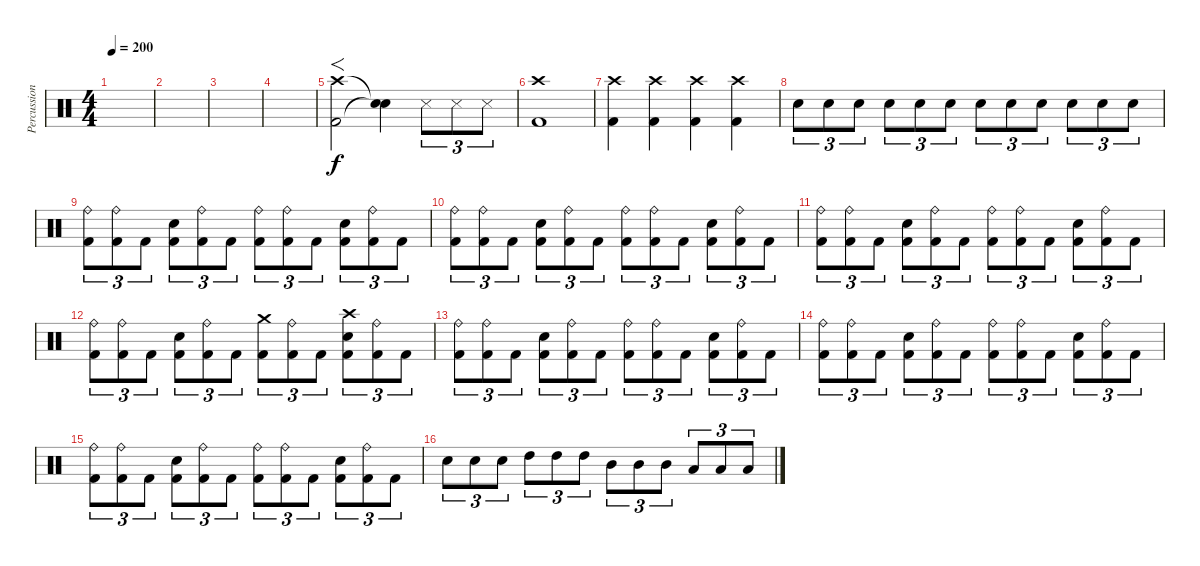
\track ("Percussion" "Percussion") {instrument percussion}
\staff {score}
\articulation defaults
\ts (4 4)
\tempo 200
\clef neutral
\ks c
|
|
|
|
("Crash high (hit)" "Kick (hit) 2").2{f} ("Snare (hit)"{t} "Snare (hit)"{t}).4 "Snare (side stick) 3".8{tu (3 2)} "Snare (side stick) 3".8{tu (3 2)} "Snare (side stick) 3".8{tu (3 2)} |
("Crash high (hit)" "Kick (hit) 2").1 |
("Crash high (hit)" "Kick (hit) 2").4 ("Crash high (hit)" "Kick (hit) 2").4 ("Crash high (hit)" "Kick (hit) 2").4 ("Crash high (hit)" "Kick (hit) 2").4 |
"Electric Snare (hit)".8{tu (3 2)} "Electric Snare (hit)".8{tu (3 2)} "Electric Snare (hit)".8{tu (3 2)} "Electric Snare (hit)".8{tu (3 2)} "Electric Snare (hit)".8{tu (3 2)} "Electric Snare (hit)".8{tu (3 2)} "Electric Snare (hit)".8{tu (3 2)} "Electric Snare (hit)".8{tu (3 2)} "Electric Snare (hit)".8{tu (3 2)} "Electric Snare (hit)".8{tu (3 2)} "Electric Snare (hit)".8{tu (3 2)} "Electric Snare (hit)".8{tu (3 2)} |
("Ride (bell)" "Kick (hit) 2").8{tu (3 2)} ("Ride (bell)" "Kick (hit) 2").8{tu (3 2)} "Kick (hit) 2".8{tu (3 2)} ("Electric Snare (hit)" "Kick (hit) 2").8{tu (3 2)} ("Ride (bell)" "Kick (hit) 2").8{tu (3 2)} "Kick (hit) 2".8{tu (3 2)} ("Ride (bell)" "Kick (hit) 2").8{tu (3 2)} ("Ride (bell)" "Kick (hit) 2").8{tu (3 2)} "Kick (hit) 2".8{tu (3 2)} ("Electric Snare (hit)" "Kick (hit) 2").8{tu (3 2)} ("Ride (bell)" "Kick (hit) 2").8{tu (3 2)} "Kick (hit) 2".8{tu (3 2)} |
("Ride (bell)" "Kick (hit) 2").8{tu (3 2)} ("Ride (bell)" "Kick (hit) 2").8{tu (3 2)} "Kick (hit) 2".8{tu (3 2)} ("Electric Snare (hit)" "Kick (hit) 2").8{tu (3 2)} ("Ride (bell)" "Kick (hit) 2").8{tu (3 2)} "Kick (hit) 2".8{tu (3 2)} ("Ride (bell)" "Kick (hit) 2").8{tu (3 2)} ("Ride (bell)" "Kick (hit) 2").8{tu (3 2)} "Kick (hit) 2".8{tu (3 2)} ("Electric Snare (hit)" "Kick (hit) 2").8{tu (3 2)} ("Ride (bell)" "Kick (hit) 2").8{tu (3 2)} "Kick (hit) 2".8{tu (3 2)} |
("Ride (bell)" "Kick (hit) 2").8{tu (3 2)} ("Ride (bell)" "Kick (hit) 2").8{tu (3 2)} "Kick (hit) 2".8{tu (3 2)} ("Electric Snare (hit)" "Kick (hit) 2").8{tu (3 2)} ("Ride (bell)" "Kick (hit) 2").8{tu (3 2)} "Kick (hit) 2".8{tu (3 2)} ("Ride (bell)" "Kick (hit) 2").8{tu (3 2)} ("Ride (bell)" "Kick (hit) 2").8{tu (3 2)} "Kick (hit) 2".8{tu (3 2)} ("Electric Snare (hit)" "Kick (hit) 2").8{tu (3 2)} ("Ride (bell)" "Kick (hit) 2").8{tu (3 2)} "Kick (hit) 2".8{tu (3 2)} |
("Ride (bell)" "Kick (hit) 2").8{tu (3 2)} ("Ride (bell)" "Kick (hit) 2").8{tu (3 2)} "Kick (hit) 2".8{tu (3 2)} ("Electric Snare (hit)" "Kick (hit) 2").8{tu (3 2)} ("Ride (bell)" "Kick (hit) 2").8{tu (3 2)} "Kick (hit) 2".8{tu (3 2)} ("Crash medium (hit)" "Kick (hit) 2").8{tu (3 2)} ("Ride (bell)" "Kick (hit) 2").8{tu (3 2)} "Kick (hit) 2".8{tu (3 2)} ("Crash high (hit)" "Electric Snare (hit)" "Kick (hit) 2").8{tu (3 2)} ("Ride (bell)" "Kick (hit) 2").8{tu (3 2)} "Kick (hit) 2".8{tu (3 2)} |
("Ride (bell)" "Kick (hit) 2").8{tu (3 2)} ("Ride (bell)" "Kick (hit) 2").8{tu (3 2)} "Kick (hit) 2".8{tu (3 2)} ("Electric Snare (hit)" "Kick (hit) 2").8{tu (3 2)} ("Ride (bell)" "Kick (hit) 2").8{tu (3 2)} "Kick (hit) 2".8{tu (3 2)} ("Ride (bell)" "Kick (hit) 2").8{tu (3 2)} ("Ride (bell)" "Kick (hit) 2").8{tu (3 2)} "Kick (hit) 2".8{tu (3 2)} ("Electric Snare (hit)" "Kick (hit) 2").8{tu (3 2)} ("Ride (bell)" "Kick (hit) 2").8{tu (3 2)} "Kick (hit) 2".8{tu (3 2)} |
("Ride (bell)" "Kick (hit) 2").8{tu (3 2)} ("Ride (bell)" "Kick (hit) 2").8{tu (3 2)} "Kick (hit) 2".8{tu (3 2)} ("Electric Snare (hit)" "Kick (hit) 2").8{tu (3 2)} ("Ride (bell)" "Kick (hit) 2").8{tu (3 2)} "Kick (hit) 2".8{tu (3 2)} ("Ride (bell)" "Kick (hit) 2").8{tu (3 2)} ("Ride (bell)" "Kick (hit) 2").8{tu (3 2)} "Kick (hit) 2".8{tu (3 2)} ("Electric Snare (hit)" "Kick (hit) 2").8{tu (3 2)} ("Ride (bell)" "Kick (hit) 2").8{tu (3 2)} "Kick (hit) 2".8{tu (3 2)} |
("Ride (bell)" "Kick (hit) 2").8{tu (3 2)} ("Ride (bell)" "Kick (hit) 2").8{tu (3 2)} "Kick (hit) 2".8{tu (3 2)} ("Electric Snare (hit)" "Kick (hit) 2").8{tu (3 2)} ("Ride (bell)" "Kick (hit) 2").8{tu (3 2)} "Kick (hit) 2".8{tu (3 2)} ("Ride (bell)" "Kick (hit) 2").8{tu (3 2)} ("Ride (bell)" "Kick (hit) 2").8{tu (3 2)} "Kick (hit) 2".8{tu (3 2)} ("Electric Snare (hit)" "Kick (hit) 2").8{tu (3 2)} ("Ride (bell)" "Kick (hit) 2").8{tu (3 2)} "Kick (hit) 2".8{tu (3 2)} |
"Electric Snare (hit)".8{tu (3 2)} "Electric Snare (hit)".8{tu (3 2)} "Electric Snare (hit)".8{tu (3 2)} "High Tom (hit)".8{tu (3 2)} "High Tom (hit)".8{tu (3 2)} "High Tom (hit)".8{tu (3 2)} "Mid Tom (hit)".8{tu (3 2)} "Mid Tom (hit)".8{tu (3 2)} "Mid Tom (hit)".8{tu (3 2)} "Low Tom (hit)".8{tu (3 2)} "Low Tom (hit)".8{tu (3 2)} "Low Tom (hit)".8{tu (3 2)}
